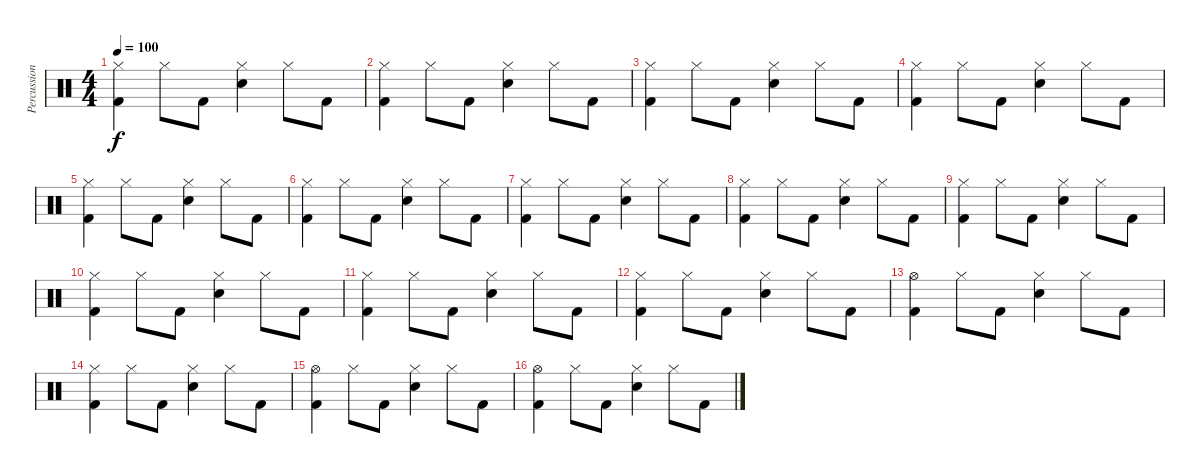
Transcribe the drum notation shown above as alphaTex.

\track ("Percussion" "Percussion") {instrument percussion}
\staff {score}
\articulation defaults
\ts (4 4)
\tempo 100
\clef neutral
\ks c
("Hi-Hat (closed)" "Kick (hit) 2").4{dy f} "Hi-Hat (closed)".8 "Kick (hit) 2".8 ("Hi-Hat (closed)" "Snare (hit) 2").4 "Hi-Hat (closed)".8 "Kick (hit) 2".8 |
("Hi-Hat (closed)" "Kick (hit) 2").4 "Hi-Hat (closed)".8 "Kick (hit) 2".8 ("Hi-Hat (closed)" "Snare (hit) 2").4 "Hi-Hat (closed)".8 "Kick (hit) 2".8 |
("Hi-Hat (closed)" "Kick (hit) 2").4 "Hi-Hat (closed)".8 "Kick (hit) 2".8 ("Hi-Hat (closed)" "Snare (hit) 2").4 "Hi-Hat (closed)".8 "Kick (hit) 2".8 |
("Hi-Hat (closed)" "Kick (hit) 2").4 "Hi-Hat (closed)".8 "Kick (hit) 2".8 ("Hi-Hat (closed)" "Snare (hit) 2").4 "Hi-Hat (closed)".8 "Kick (hit) 2".8 |
("Hi-Hat (closed)" "Kick (hit) 2").4 "Hi-Hat (closed)".8 "Kick (hit) 2".8 ("Hi-Hat (closed)" "Snare (hit) 2").4 "Hi-Hat (closed)".8 "Kick (hit) 2".8 |
("Hi-Hat (closed)" "Kick (hit) 2").4 "Hi-Hat (closed)".8 "Kick (hit) 2".8 ("Hi-Hat (closed)" "Snare (hit) 2").4 "Hi-Hat (closed)".8 "Kick (hit) 2".8 |
("Hi-Hat (closed)" "Kick (hit) 2").4 "Hi-Hat (closed)".8 "Kick (hit) 2".8 ("Hi-Hat (closed)" "Snare (hit) 2").4 "Hi-Hat (closed)".8 "Kick (hit) 2".8 |
("Hi-Hat (closed)" "Kick (hit) 2").4 "Hi-Hat (closed)".8 "Kick (hit) 2".8 ("Hi-Hat (closed)" "Snare (hit) 2").4 "Hi-Hat (closed)".8 "Kick (hit) 2".8 |
("Hi-Hat (closed)" "Kick (hit) 2").4 "Hi-Hat (closed)".8 "Kick (hit) 2".8 ("Hi-Hat (closed)" "Snare (hit) 2").4 "Hi-Hat (closed)".8 "Kick (hit) 2".8 |
("Hi-Hat (closed)" "Kick (hit) 2").4 "Hi-Hat (closed)".8 "Kick (hit) 2".8 ("Hi-Hat (closed)" "Snare (hit) 2").4 "Hi-Hat (closed)".8 "Kick (hit) 2".8 |
("Hi-Hat (closed)" "Kick (hit) 2").4 "Hi-Hat (closed)".8 "Kick (hit) 2".8 ("Hi-Hat (closed)" "Snare (hit) 2").4 "Hi-Hat (closed)".8 "Kick (hit) 2".8 |
("Hi-Hat (closed)" "Kick (hit) 2").4 "Hi-Hat (closed)".8 "Kick (hit) 2".8 ("Hi-Hat (closed)" "Snare (hit) 2").4 "Hi-Hat (closed)".8 "Kick (hit) 2".8 |
("Hi-Hat (open)" "Kick (hit) 2").4 "Hi-Hat (closed)".8 "Kick (hit) 2".8 ("Hi-Hat (closed)" "Snare (hit) 2").4 "Hi-Hat (closed)".8 "Kick (hit) 2".8 |
("Hi-Hat (closed)" "Kick (hit) 2").4 "Hi-Hat (closed)".8 "Kick (hit) 2".8 ("Hi-Hat (closed)" "Snare (hit) 2").4 "Hi-Hat (closed)".8 "Kick (hit) 2".8 |
("Hi-Hat (open)" "Kick (hit) 2").4 "Hi-Hat (closed)".8 "Kick (hit) 2".8 ("Hi-Hat (closed)" "Snare (hit) 2").4 "Hi-Hat (closed)".8 "Kick (hit) 2".8 |
("Hi-Hat (open)" "Kick (hit) 2").4 "Hi-Hat (closed)".8 "Kick (hit) 2".8 ("Hi-Hat (closed)" "Snare (hit) 2").4 "Hi-Hat (closed)".8 "Kick (hit) 2".8
